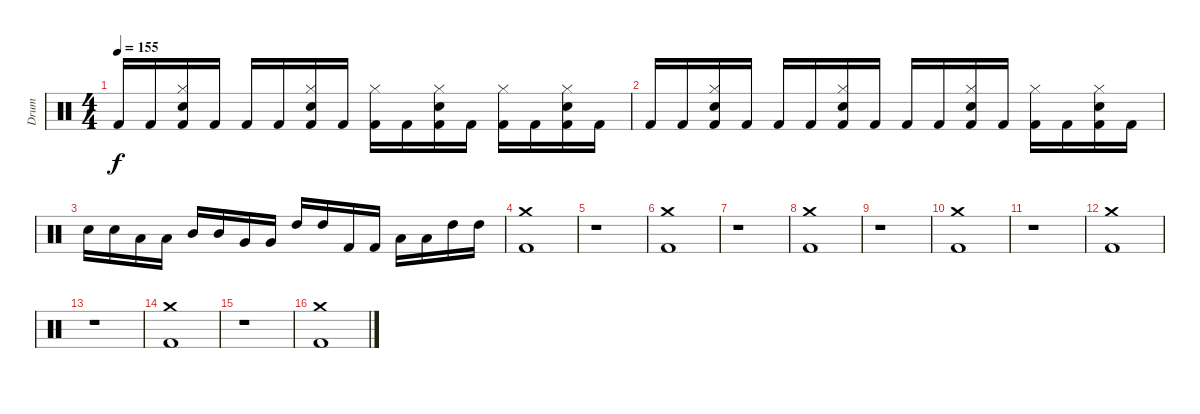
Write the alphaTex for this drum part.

\track ("Drum" "Drum") {instrument percussion}
\staff {score}
\articulation defaults
\ts (4 4)
\tempo 155
\clef neutral
\ks c "Kick (hit) 2".16{dy f} "Kick (hit) 2".16
("Kick (hit) 2" "Hi-Hat (closed)" "Electric Snare (hit)").16 "Kick (hit) 2".16 "Kick (hit) 2".16 "Kick (hit) 2".16 ("Kick (hit) 2" "Hi-Hat (closed)" "Electric Snare (hit)").16 "Kick (hit) 2".16 ("Kick (hit) 2" "Hi-Hat (closed)").16 "Kick (hit) 2".16 ("Kick (hit) 2" "Hi-Hat (closed)" "Electric Snare (hit)").16 "Kick (hit) 2".16 ("Kick (hit) 2" "Hi-Hat (closed)").16 "Kick (hit) 2".16 ("Kick (hit) 2" "Hi-Hat (closed)" "Electric Snare (hit)").16 "Kick (hit) 2".16 |
"Kick (hit) 2".16 "Kick (hit) 2".16 ("Kick (hit) 2" "Hi-Hat (closed)" "Electric Snare (hit)").16 "Kick (hit) 2".16 "Kick (hit) 2".16 "Kick (hit) 2".16 ("Kick (hit) 2" "Hi-Hat (closed)" "Electric Snare (hit)").16 "Kick (hit) 2".16 "Kick (hit) 2".16 "Kick (hit) 2".16 ("Kick (hit) 2" "Hi-Hat (closed)" "Electric Snare (hit)").16 "Kick (hit) 2".16 ("Kick (hit) 2" "Hi-Hat (closed)").16 "Kick (hit) 2".16 ("Kick (hit) 2" "Hi-Hat (closed)" "Electric Snare (hit)").16 "Kick (hit) 2".16 |
"Electric Snare (hit)".16 "Electric Snare (hit)".16 "Low Tom (hit)".16 "Low Tom (hit)".16 "Mid Tom (hit)".16 "Mid Tom (hit)".16 "Very Low Tom (hit)".16 "Very Low Tom (hit)".16 "High Tom (hit)".16 "High Tom (hit)".16 "Kick (hit) 2".16 "Kick (hit) 2".16 "Low Floor Tom (hit)".16 "Low Floor Tom (hit)".16 "High Tom (hit)".16 "High Tom (hit)".16 |
("Kick (hit) 2" "Crash medium (hit)").1 |
r.1 |
("Kick (hit) 2" "Crash medium (hit)").1 |
r.1 |
("Kick (hit) 2" "Crash medium (hit)").1 |
r.1 |
("Kick (hit) 2" "Crash medium (hit)").1 |
r.1 |
("Kick (hit) 2" "Crash medium (hit)").1 |
r.1 |
("Kick (hit) 2" "Crash medium (hit)").1 |
r.1 |
("Kick (hit) 2" "Crash medium (hit)").1
